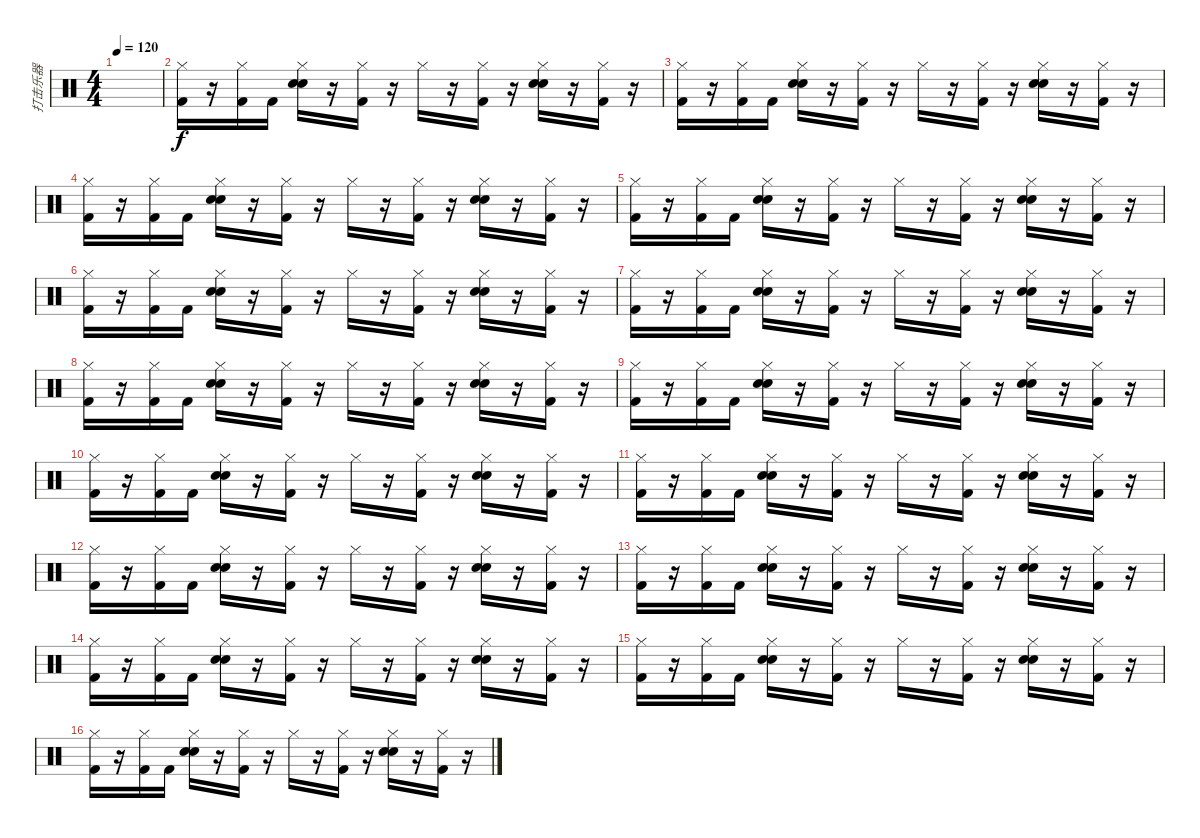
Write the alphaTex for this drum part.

\track ("打击乐器" "打击乐器") {instrument percussion}
\staff {score}
\articulation defaults
\ts (4 4)
\tempo 120
\clef neutral
\ks c
|
("Hi-Hat (closed)" "Kick (hit) 2").16 r.16 ("Hi-Hat (closed)" "Kick (hit) 2").16 "Kick (hit) 2".16 ("Hi-Hat (closed)" "Electric Snare (hit)" "Snare (hit) 2").16 r.16 ("Hi-Hat (closed)" "Kick (hit) 2").16 r.16 "Hi-Hat (closed)".16 r.16 ("Hi-Hat (closed)" "Kick (hit) 2").16 r.16 ("Hi-Hat (closed)" "Electric Snare (hit)" "Snare (hit) 2").16 r.16 ("Hi-Hat (closed)" "Kick (hit) 2").16 r.16 |
("Hi-Hat (closed)" "Kick (hit) 2").16 r.16 ("Hi-Hat (closed)" "Kick (hit) 2").16 "Kick (hit) 2".16 ("Hi-Hat (closed)" "Electric Snare (hit)" "Snare (hit) 2").16 r.16 ("Hi-Hat (closed)" "Kick (hit) 2").16 r.16 "Hi-Hat (closed)".16 r.16 ("Hi-Hat (closed)" "Kick (hit) 2").16 r.16 ("Hi-Hat (closed)" "Electric Snare (hit)" "Snare (hit) 2").16 r.16 ("Hi-Hat (closed)" "Kick (hit) 2").16 r.16 |
("Hi-Hat (closed)" "Kick (hit) 2").16 r.16 ("Hi-Hat (closed)" "Kick (hit) 2").16 "Kick (hit) 2".16 ("Hi-Hat (closed)" "Electric Snare (hit)" "Snare (hit) 2").16 r.16 ("Hi-Hat (closed)" "Kick (hit) 2").16 r.16 "Hi-Hat (closed)".16 r.16 ("Hi-Hat (closed)" "Kick (hit) 2").16 r.16 ("Hi-Hat (closed)" "Electric Snare (hit)" "Snare (hit) 2").16 r.16 ("Hi-Hat (closed)" "Kick (hit) 2").16 r.16 |
("Hi-Hat (closed)" "Kick (hit) 2").16 r.16 ("Hi-Hat (closed)" "Kick (hit) 2").16 "Kick (hit) 2".16 ("Hi-Hat (closed)" "Electric Snare (hit)" "Snare (hit) 2").16 r.16 ("Hi-Hat (closed)" "Kick (hit) 2").16 r.16 "Hi-Hat (closed)".16 r.16 ("Hi-Hat (closed)" "Kick (hit) 2").16 r.16 ("Hi-Hat (closed)" "Electric Snare (hit)" "Snare (hit) 2").16 r.16 ("Hi-Hat (closed)" "Kick (hit) 2").16 r.16 |
("Hi-Hat (closed)" "Kick (hit) 2").16 r.16 ("Hi-Hat (closed)" "Kick (hit) 2").16 "Kick (hit) 2".16 ("Hi-Hat (closed)" "Electric Snare (hit)" "Snare (hit) 2").16 r.16 ("Hi-Hat (closed)" "Kick (hit) 2").16 r.16 "Hi-Hat (closed)".16 r.16 ("Hi-Hat (closed)" "Kick (hit) 2").16 r.16 ("Hi-Hat (closed)" "Electric Snare (hit)" "Snare (hit) 2").16 r.16 ("Hi-Hat (closed)" "Kick (hit) 2").16 r.16 |
("Hi-Hat (closed)" "Kick (hit) 2").16 r.16 ("Hi-Hat (closed)" "Kick (hit) 2").16 "Kick (hit) 2".16 ("Hi-Hat (closed)" "Electric Snare (hit)" "Snare (hit) 2").16 r.16 ("Hi-Hat (closed)" "Kick (hit) 2").16 r.16 "Hi-Hat (closed)".16 r.16 ("Hi-Hat (closed)" "Kick (hit) 2").16 r.16 ("Hi-Hat (closed)" "Electric Snare (hit)" "Snare (hit) 2").16 r.16 ("Hi-Hat (closed)" "Kick (hit) 2").16 r.16 |
("Hi-Hat (closed)" "Kick (hit) 2").16 r.16 ("Hi-Hat (closed)" "Kick (hit) 2").16 "Kick (hit) 2".16 ("Hi-Hat (closed)" "Electric Snare (hit)" "Snare (hit) 2").16 r.16 ("Hi-Hat (closed)" "Kick (hit) 2").16 r.16 "Hi-Hat (closed)".16 r.16 ("Hi-Hat (closed)" "Kick (hit) 2").16 r.16 ("Hi-Hat (closed)" "Electric Snare (hit)" "Snare (hit) 2").16 r.16 ("Hi-Hat (closed)" "Kick (hit) 2").16 r.16 |
("Hi-Hat (closed)" "Kick (hit) 2").16 r.16 ("Hi-Hat (closed)" "Kick (hit) 2").16 "Kick (hit) 2".16 ("Hi-Hat (closed)" "Electric Snare (hit)" "Snare (hit) 2").16 r.16 ("Hi-Hat (closed)" "Kick (hit) 2").16 r.16 "Hi-Hat (closed)".16 r.16 ("Hi-Hat (closed)" "Kick (hit) 2").16 r.16 ("Hi-Hat (closed)" "Electric Snare (hit)" "Snare (hit) 2").16 r.16 ("Hi-Hat (closed)" "Kick (hit) 2").16 r.16 |
("Hi-Hat (closed)" "Kick (hit) 2").16 r.16 ("Hi-Hat (closed)" "Kick (hit) 2").16 "Kick (hit) 2".16 ("Hi-Hat (closed)" "Electric Snare (hit)" "Snare (hit) 2").16 r.16 ("Hi-Hat (closed)" "Kick (hit) 2").16 r.16 "Hi-Hat (closed)".16 r.16 ("Hi-Hat (closed)" "Kick (hit) 2").16 r.16 ("Hi-Hat (closed)" "Electric Snare (hit)" "Snare (hit) 2").16 r.16 ("Hi-Hat (closed)" "Kick (hit) 2").16 r.16 |
("Hi-Hat (closed)" "Kick (hit) 2").16 r.16 ("Hi-Hat (closed)" "Kick (hit) 2").16 "Kick (hit) 2".16 ("Hi-Hat (closed)" "Electric Snare (hit)" "Snare (hit) 2").16 r.16 ("Hi-Hat (closed)" "Kick (hit) 2").16 r.16 "Hi-Hat (closed)".16 r.16 ("Hi-Hat (closed)" "Kick (hit) 2").16 r.16 ("Hi-Hat (closed)" "Electric Snare (hit)" "Snare (hit) 2").16 r.16 ("Hi-Hat (closed)" "Kick (hit) 2").16 r.16 |
("Hi-Hat (closed)" "Kick (hit) 2").16 r.16 ("Hi-Hat (closed)" "Kick (hit) 2").16 "Kick (hit) 2".16 ("Hi-Hat (closed)" "Electric Snare (hit)" "Snare (hit) 2").16 r.16 ("Hi-Hat (closed)" "Kick (hit) 2").16 r.16 "Hi-Hat (closed)".16 r.16 ("Hi-Hat (closed)" "Kick (hit) 2").16 r.16 ("Hi-Hat (closed)" "Electric Snare (hit)" "Snare (hit) 2").16 r.16 ("Hi-Hat (closed)" "Kick (hit) 2").16 r.16 |
("Hi-Hat (closed)" "Kick (hit) 2").16 r.16 ("Hi-Hat (closed)" "Kick (hit) 2").16 "Kick (hit) 2".16 ("Hi-Hat (closed)" "Electric Snare (hit)" "Snare (hit) 2").16 r.16 ("Hi-Hat (closed)" "Kick (hit) 2").16 r.16 "Hi-Hat (closed)".16 r.16 ("Hi-Hat (closed)" "Kick (hit) 2").16 r.16 ("Hi-Hat (closed)" "Electric Snare (hit)" "Snare (hit) 2").16 r.16 ("Hi-Hat (closed)" "Kick (hit) 2").16 r.16 |
("Hi-Hat (closed)" "Kick (hit) 2").16 r.16 ("Hi-Hat (closed)" "Kick (hit) 2").16 "Kick (hit) 2".16 ("Hi-Hat (closed)" "Electric Snare (hit)" "Snare (hit) 2").16 r.16 ("Hi-Hat (closed)" "Kick (hit) 2").16 r.16 "Hi-Hat (closed)".16 r.16 ("Hi-Hat (closed)" "Kick (hit) 2").16 r.16 ("Hi-Hat (closed)" "Electric Snare (hit)" "Snare (hit) 2").16 r.16 ("Hi-Hat (closed)" "Kick (hit) 2").16 r.16 |
("Hi-Hat (closed)" "Kick (hit) 2").16 r.16 ("Hi-Hat (closed)" "Kick (hit) 2").16 "Kick (hit) 2".16 ("Hi-Hat (closed)" "Electric Snare (hit)" "Snare (hit) 2").16 r.16 ("Hi-Hat (closed)" "Kick (hit) 2").16 r.16 "Hi-Hat (closed)".16 r.16 ("Hi-Hat (closed)" "Kick (hit) 2").16 r.16 ("Hi-Hat (closed)" "Electric Snare (hit)" "Snare (hit) 2").16 r.16 ("Hi-Hat (closed)" "Kick (hit) 2").16 r.16 |
("Hi-Hat (closed)" "Kick (hit) 2").16 r.16 ("Hi-Hat (closed)" "Kick (hit) 2").16 "Kick (hit) 2".16 ("Hi-Hat (closed)" "Electric Snare (hit)" "Snare (hit) 2").16 r.16 ("Hi-Hat (closed)" "Kick (hit) 2").16 r.16 "Hi-Hat (closed)".16 r.16 ("Hi-Hat (closed)" "Kick (hit) 2").16 r.16 ("Hi-Hat (closed)" "Electric Snare (hit)" "Snare (hit) 2").16 r.16 ("Hi-Hat (closed)" "Kick (hit) 2").16 r.16
